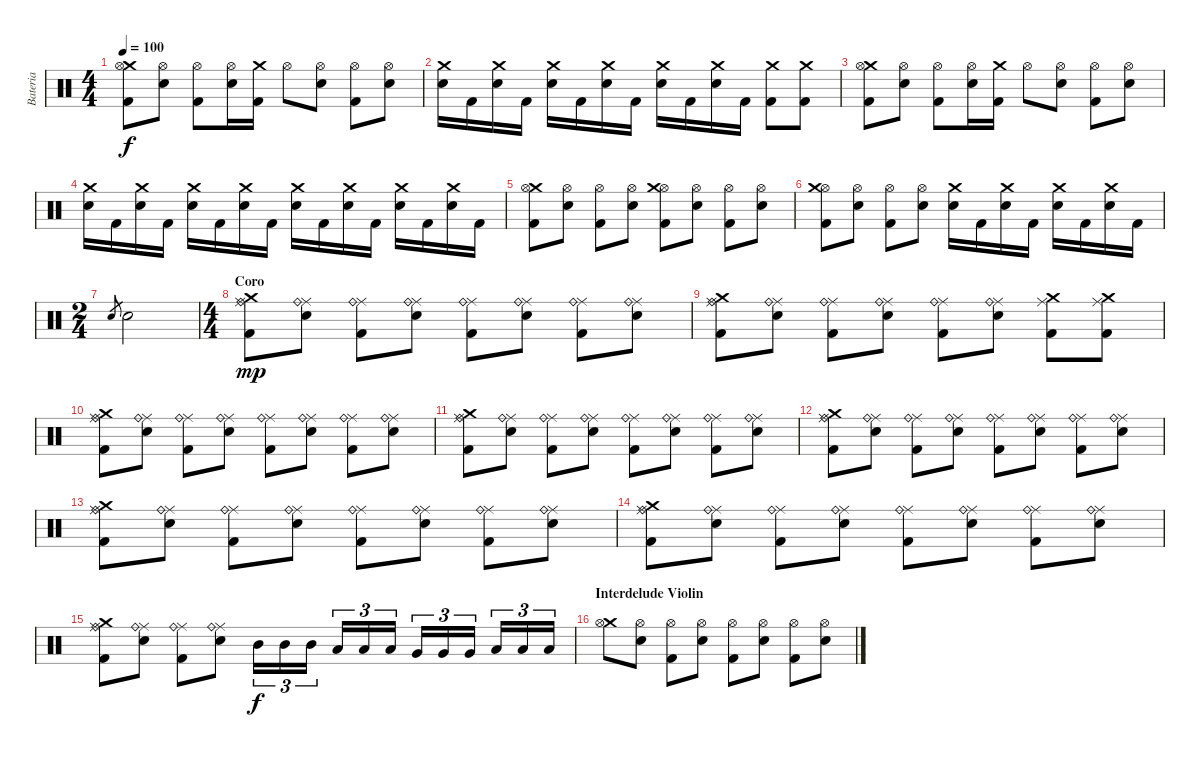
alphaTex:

\track ("Bateria" "Bateria") {instrument percussion}
\staff {score}
\articulation defaults
\ts (4 4)
\tempo 100
\clef neutral
\ks c
("Crash medium (hit)" "Kick (hit) 2" "Hi-Hat (open)").8{dy f} ("Snare (hit) 2" "Hi-Hat (open)").8 ("Hi-Hat (open)" "Kick (hit) 2").8 ("Hi-Hat (open)" "Snare (hit) 2").16 ("Crash medium (hit)" "Kick (hit) 2").16 "Hi-Hat (open)".8 ("Hi-Hat (open)" "Snare (hit) 2").8 ("Hi-Hat (open)" "Kick (hit) 2").8 ("Hi-Hat (open)" "Snare (hit) 2").8 |
("Snare (hit) 2" "Crash medium (hit)").16 "Kick (hit) 2".16 ("Snare (hit) 2" "Crash medium (hit)").16 "Kick (hit) 2".16 ("Snare (hit) 2" "Crash medium (hit)").16 "Kick (hit) 2".16 ("Snare (hit) 2" "Crash medium (hit)").16 "Kick (hit) 2".16 ("Snare (hit) 2" "Crash medium (hit)").16 "Kick (hit) 2".16 ("Snare (hit) 2" "Crash medium (hit)").16 "Kick (hit) 2".16 ("Kick (hit) 2" "Crash medium (hit)").8 ("Kick (hit) 2" "Crash medium (hit)").8 |
("Crash medium (hit)" "Kick (hit) 2" "Hi-Hat (open)").8 ("Snare (hit) 2" "Hi-Hat (open)").8 ("Hi-Hat (open)" "Kick (hit) 2").8 ("Hi-Hat (open)" "Snare (hit) 2").16 ("Crash medium (hit)" "Kick (hit) 2").16 "Hi-Hat (open)".8 ("Hi-Hat (open)" "Snare (hit) 2").8 ("Hi-Hat (open)" "Kick (hit) 2").8 ("Hi-Hat (open)" "Snare (hit) 2").8 |
("Snare (hit) 2" "Crash medium (hit)").16 "Kick (hit) 2".16 ("Snare (hit) 2" "Crash medium (hit)").16 "Kick (hit) 2".16 ("Snare (hit) 2" "Crash medium (hit)").16 "Kick (hit) 2".16 ("Snare (hit) 2" "Crash medium (hit)").16 "Kick (hit) 2".16 ("Snare (hit) 2" "Crash medium (hit)").16 "Kick (hit) 2".16 ("Snare (hit) 2" "Crash medium (hit)").16 "Kick (hit) 2".16 ("Snare (hit) 2" "Crash medium (hit)").16 "Kick (hit) 2".16 ("Snare (hit) 2" "Crash medium (hit)").16 "Kick (hit) 2".16 |
("Crash medium (hit)" "Kick (hit) 2" "Hi-Hat (open)").8 ("Snare (hit) 2" "Hi-Hat (open)").8 ("Hi-Hat (open)" "Kick (hit) 2").8 ("Hi-Hat (open)" "Snare (hit) 2").8 ("Hi-Hat (open)" "Kick (hit) 2" "Crash medium (hit)").8 ("Hi-Hat (open)" "Snare (hit) 2").8 ("Hi-Hat (open)" "Kick (hit) 2").8 ("Hi-Hat (open)" "Snare (hit) 2").8 |
("Hi-Hat (open)" "Kick (hit) 2" "Crash medium (hit)").8 ("Hi-Hat (open)" "Snare (hit) 2").8 ("Hi-Hat (open)" "Kick (hit) 2").8 ("Snare (hit) 2" "Hi-Hat (open)").8 ("Snare (hit) 2" "Crash medium (hit)").16 "Kick (hit) 2".16 ("Snare (hit) 2" "Crash medium (hit)").16 "Kick (hit) 2".16 ("Snare (hit) 2" "Crash medium (hit)").16 "Kick (hit) 2".16 ("Snare (hit) 2" "Crash medium (hit)").16 "Kick (hit) 2".16 |
\ts (2 4)
"Snare (hit) 2".8{gr} "Snare (hit) 2".2 |
\ts (4 4)
\section ("" "Coro")
("Crash medium (hit)" "Ride (middle)" "Kick (hit) 2" "Ride (bell)").8{dy mp} ("Ride (middle)" "Snare (hit) 2" "Ride (bell)").8 ("Ride (middle)" "Kick (hit) 2" "Ride (bell)").8 ("Ride (middle)" "Snare (hit) 2" "Ride (bell)").8 ("Ride (middle)" "Kick (hit) 2" "Ride (bell)").8 ("Ride (middle)" "Snare (hit) 2" "Ride (bell)").8 ("Ride (middle)" "Kick (hit) 2" "Ride (bell)").8 ("Ride (middle)" "Snare (hit) 2" "Ride (bell)").8 |
("Crash medium (hit)" "Ride (middle)" "Kick (hit) 2" "Ride (bell)").8 ("Ride (middle)" "Snare (hit) 2" "Ride (bell)").8 ("Ride (middle)" "Kick (hit) 2" "Ride (bell)").8 ("Ride (middle)" "Snare (hit) 2" "Ride (bell)").8 ("Ride (middle)" "Kick (hit) 2" "Ride (bell)").8 ("Ride (middle)" "Snare (hit) 2" "Ride (bell)").8 ("Ride (middle)" "Kick (hit) 2" "Crash medium (hit)").8 ("Ride (middle)" "Kick (hit) 2" "Crash medium (hit)").8 |
("Crash medium (hit)" "Ride (middle)" "Kick (hit) 2" "Ride (bell)").8 ("Ride (middle)" "Snare (hit) 2" "Ride (bell)").8 ("Ride (middle)" "Kick (hit) 2" "Ride (bell)").8 ("Ride (middle)" "Snare (hit) 2" "Ride (bell)").8 ("Ride (middle)" "Kick (hit) 2" "Ride (bell)").8 ("Ride (middle)" "Snare (hit) 2" "Ride (bell)").8 ("Ride (middle)" "Kick (hit) 2" "Ride (bell)").8 ("Ride (middle)" "Snare (hit) 2" "Ride (bell)").8 |
("Crash medium (hit)" "Ride (middle)" "Kick (hit) 2" "Ride (bell)").8 ("Ride (middle)" "Snare (hit) 2" "Ride (bell)").8 ("Ride (middle)" "Kick (hit) 2" "Ride (bell)").8 ("Ride (middle)" "Snare (hit) 2" "Ride (bell)").8 ("Ride (middle)" "Kick (hit) 2" "Ride (bell)").8 ("Ride (middle)" "Snare (hit) 2" "Ride (bell)").8 ("Ride (middle)" "Kick (hit) 2" "Ride (bell)").8 ("Ride (middle)" "Snare (hit) 2" "Ride (bell)").8 |
("Crash medium (hit)" "Ride (middle)" "Kick (hit) 2" "Ride (bell)").8 ("Ride (middle)" "Snare (hit) 2" "Ride (bell)").8 ("Ride (middle)" "Kick (hit) 2" "Ride (bell)").8 ("Ride (middle)" "Snare (hit) 2" "Ride (bell)").8 ("Ride (middle)" "Kick (hit) 2" "Ride (bell)").8 ("Ride (middle)" "Snare (hit) 2" "Ride (bell)").8 ("Ride (middle)" "Kick (hit) 2" "Ride (bell)").8 ("Ride (middle)" "Snare (hit) 2" "Ride (bell)").8 |
("Crash medium (hit)" "Ride (middle)" "Kick (hit) 2" "Ride (bell)").8 ("Ride (middle)" "Snare (hit) 2" "Ride (bell)").8 ("Ride (middle)" "Kick (hit) 2" "Ride (bell)").8 ("Ride (middle)" "Snare (hit) 2" "Ride (bell)").8 ("Ride (middle)" "Kick (hit) 2" "Ride (bell)").8 ("Ride (middle)" "Snare (hit) 2" "Ride (bell)").8 ("Ride (middle)" "Kick (hit) 2" "Ride (bell)").8 ("Ride (middle)" "Snare (hit) 2" "Ride (bell)").8 |
("Crash medium (hit)" "Ride (middle)" "Kick (hit) 2" "Ride (bell)").8 ("Ride (middle)" "Snare (hit) 2" "Ride (bell)").8 ("Ride (middle)" "Kick (hit) 2" "Ride (bell)").8 ("Ride (middle)" "Snare (hit) 2" "Ride (bell)").8 ("Ride (middle)" "Kick (hit) 2" "Ride (bell)").8 ("Ride (middle)" "Snare (hit) 2" "Ride (bell)").8 ("Ride (middle)" "Kick (hit) 2" "Ride (bell)").8 ("Ride (middle)" "Snare (hit) 2" "Ride (bell)").8 |
("Crash medium (hit)" "Ride (middle)" "Kick (hit) 2" "Ride (bell)").8 ("Ride (middle)" "Snare (hit) 2" "Ride (bell)").8 ("Ride (middle)" "Kick (hit) 2" "Ride (bell)").8 ("Ride (middle)" "Snare (hit) 2" "Ride (bell)").8 "Mid Tom (hit)".16{tu (3 2) dy f} "Mid Tom (hit)".16{tu (3 2)} "Mid Tom (hit)".16{tu (3 2)} "Low Tom (hit)".16{tu (3 2)} "Low Tom (hit)".16{tu (3 2)} "Low Tom (hit)".16{tu (3 2)} "Very Low Tom (hit)".16{tu (3 2)} "Very Low Tom (hit)".16{tu (3 2)} "Very Low Tom (hit)".16{tu (3 2)} "Low Floor Tom (hit)".16{tu (3 2)} "Low Floor Tom (hit)".16{tu (3 2)} "Low Floor Tom (hit)".16{tu (3 2)} |
\section ("" "Interdelude Violin")
("Crash medium (hit)" "Hi-Hat (open)").8 ("Hi-Hat (open)" "Snare (hit) 2").8 ("Hi-Hat (open)" "Kick (hit) 2").8 ("Hi-Hat (open)" "Snare (hit) 2").8 ("Hi-Hat (open)" "Kick (hit) 2").8 ("Hi-Hat (open)" "Snare (hit) 2").8 ("Hi-Hat (open)" "Kick (hit) 2").8 ("Hi-Hat (open)" "Snare (hit) 2").8
